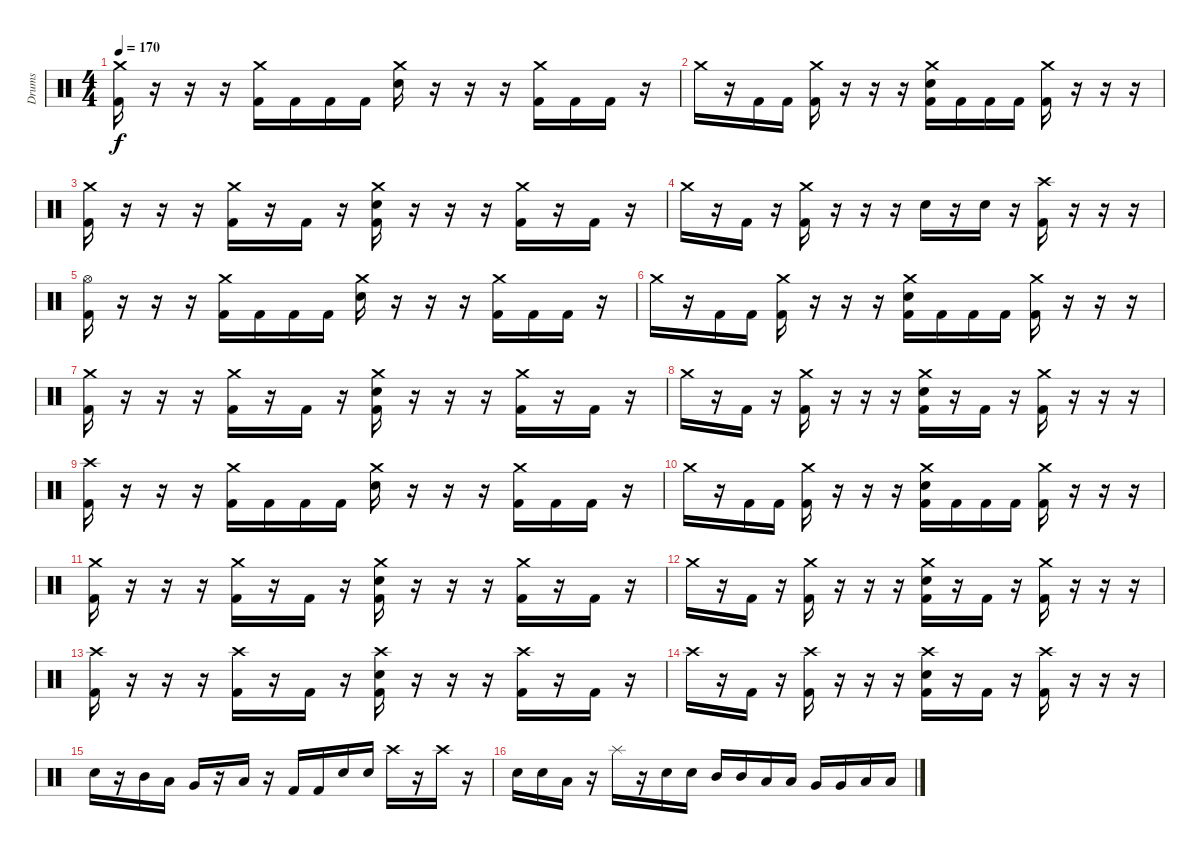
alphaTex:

\track ("Drums" "Drums") {instrument percussion}
\staff {score}
\articulation defaults
\ts (4 4)
\tempo 170
\clef neutral
\ks c
("Crash medium (hit)" "Kick (hit) 2").16{dy f} r.16 r.16 r.16 ("Crash medium (hit)" "Kick (hit) 2").16 "Kick (hit) 2".16 "Kick (hit) 2".16 "Kick (hit) 2".16 ("Crash medium (hit)" "Electric Snare (hit)").16 r.16 r.16 r.16 ("Crash medium (hit)" "Kick (hit) 2").16 "Kick (hit) 2".16 "Kick (hit) 2".16 r.16 |
"Crash medium (hit)".16 r.16 "Kick (hit) 2".16 "Kick (hit) 2".16 ("Crash medium (hit)" "Kick (hit) 2").16 r.16 r.16 r.16 ("Crash medium (hit)" "Electric Snare (hit)" "Kick (hit) 2").16 "Kick (hit) 2".16 "Kick (hit) 2".16 "Kick (hit) 2".16 ("Crash medium (hit)" "Kick (hit) 2").16 r.16 r.16 r.16 |
("Crash medium (hit)" "Kick (hit) 2").16 r.16 r.16 r.16 ("Crash medium (hit)" "Kick (hit) 2").16 r.16 "Kick (hit) 2".16 r.16 ("Crash medium (hit)" "Electric Snare (hit)" "Kick (hit) 2").16 r.16 r.16 r.16 ("Crash medium (hit)" "Kick (hit) 2").16 r.16 "Kick (hit) 2".16 r.16 |
"Crash medium (hit)".16 r.16 "Kick (hit) 2".16 r.16 ("Crash medium (hit)" "Kick (hit) 2").16 r.16 r.16 r.16 "Electric Snare (hit)".16 r.16 "Electric Snare (hit)".16 r.16 ("Crash high (hit)" "Kick (hit) 2").16 r.16 r.16 r.16 |
("Hi-Hat (open)" "Kick (hit) 2").16 r.16 r.16 r.16 ("Crash medium (hit)" "Kick (hit) 2").16 "Kick (hit) 2".16 "Kick (hit) 2".16 "Kick (hit) 2".16 ("Crash medium (hit)" "Electric Snare (hit)").16 r.16 r.16 r.16 ("Crash medium (hit)" "Kick (hit) 2").16 "Kick (hit) 2".16 "Kick (hit) 2".16 r.16 |
"Crash medium (hit)".16 r.16 "Kick (hit) 2".16 "Kick (hit) 2".16 ("Crash medium (hit)" "Kick (hit) 2").16 r.16 r.16 r.16 ("Crash medium (hit)" "Electric Snare (hit)" "Kick (hit) 2").16 "Kick (hit) 2".16 "Kick (hit) 2".16 "Kick (hit) 2".16 ("Crash medium (hit)" "Kick (hit) 2").16 r.16 r.16 r.16 |
("Crash medium (hit)" "Kick (hit) 2").16 r.16 r.16 r.16 ("Crash medium (hit)" "Kick (hit) 2").16 r.16 "Kick (hit) 2".16 r.16 ("Crash medium (hit)" "Electric Snare (hit)" "Kick (hit) 2").16 r.16 r.16 r.16 ("Crash medium (hit)" "Kick (hit) 2").16 r.16 "Kick (hit) 2".16 r.16 |
"Crash medium (hit)".16 r.16 "Kick (hit) 2".16 r.16 ("Crash medium (hit)" "Kick (hit) 2").16 r.16 r.16 r.16 ("Crash medium (hit)" "Electric Snare (hit)" "Kick (hit) 2").16 r.16 "Kick (hit) 2".16 r.16 ("Crash medium (hit)" "Kick (hit) 2").16 r.16 r.16 r.16 |
("Crash high (hit)" "Kick (hit) 2").16 r.16 r.16 r.16 ("Crash medium (hit)" "Kick (hit) 2").16 "Kick (hit) 2".16 "Kick (hit) 2".16 "Kick (hit) 2".16 ("Crash medium (hit)" "Electric Snare (hit)").16 r.16 r.16 r.16 ("Crash medium (hit)" "Kick (hit) 2").16 "Kick (hit) 2".16 "Kick (hit) 2".16 r.16 |
"Crash medium (hit)".16 r.16 "Kick (hit) 2".16 "Kick (hit) 2".16 ("Crash medium (hit)" "Kick (hit) 2").16 r.16 r.16 r.16 ("Crash medium (hit)" "Electric Snare (hit)" "Kick (hit) 2").16 "Kick (hit) 2".16 "Kick (hit) 2".16 "Kick (hit) 2".16 ("Crash medium (hit)" "Kick (hit) 2").16 r.16 r.16 r.16 |
("Crash medium (hit)" "Kick (hit) 2").16 r.16 r.16 r.16 ("Crash medium (hit)" "Kick (hit) 2").16 r.16 "Kick (hit) 2".16 r.16 ("Crash medium (hit)" "Electric Snare (hit)" "Kick (hit) 2").16 r.16 r.16 r.16 ("Crash medium (hit)" "Kick (hit) 2").16 r.16 "Kick (hit) 2".16 r.16 |
"Crash medium (hit)".16 r.16 "Kick (hit) 2".16 r.16 ("Crash medium (hit)" "Kick (hit) 2").16 r.16 r.16 r.16 ("Crash medium (hit)" "Electric Snare (hit)" "Kick (hit) 2").16 r.16 "Kick (hit) 2".16 r.16 ("Crash medium (hit)" "Kick (hit) 2").16 r.16 r.16 r.16 |
("Crash high (hit)" "Kick (hit) 2").16 r.16 r.16 r.16 ("Crash high (hit)" "Kick (hit) 2").16 r.16 "Kick (hit) 2".16 r.16 ("Crash high (hit)" "Electric Snare (hit)" "Kick (hit) 2").16 r.16 r.16 r.16 ("Crash high (hit)" "Kick (hit) 2").16 r.16 "Kick (hit) 2".16 r.16 |
"Crash high (hit)".16 r.16 "Kick (hit) 2".16 r.16 ("Crash high (hit)" "Kick (hit) 2").16 r.16 r.16 r.16 ("Crash high (hit)" "Electric Snare (hit)" "Kick (hit) 2").16 r.16 "Kick (hit) 2".16 r.16 ("Crash high (hit)" "Kick (hit) 2").16 r.16 r.16 r.16 |
"Electric Snare (hit)".16 r.16 "Mid Tom (hit)".16 "Low Tom (hit)".16 "Very Low Tom (hit)".16 r.16 "Low Floor Tom (hit)".16 r.16 "Kick (hit) 2".16 "Kick (hit) 2".16 "Electric Snare (hit)".16 "Electric Snare (hit)".16 "Crash high (hit)".16 r.16 "Crash high (hit)".16 r.16 |
"Electric Snare (hit)".16 "Electric Snare (hit)".16 "Low Tom (hit)".16 r.16 "Splash (hit)".16 r.16 "Electric Snare (hit)".16 "Electric Snare (hit)".16 "Mid Tom (hit)".16 "Mid Tom (hit)".16 "Low Tom (hit)".16 "Low Tom (hit)".16 "Very Low Tom (hit)".16 "Very Low Tom (hit)".16 "Low Floor Tom (hit)".16 "Low Floor Tom (hit)".16
